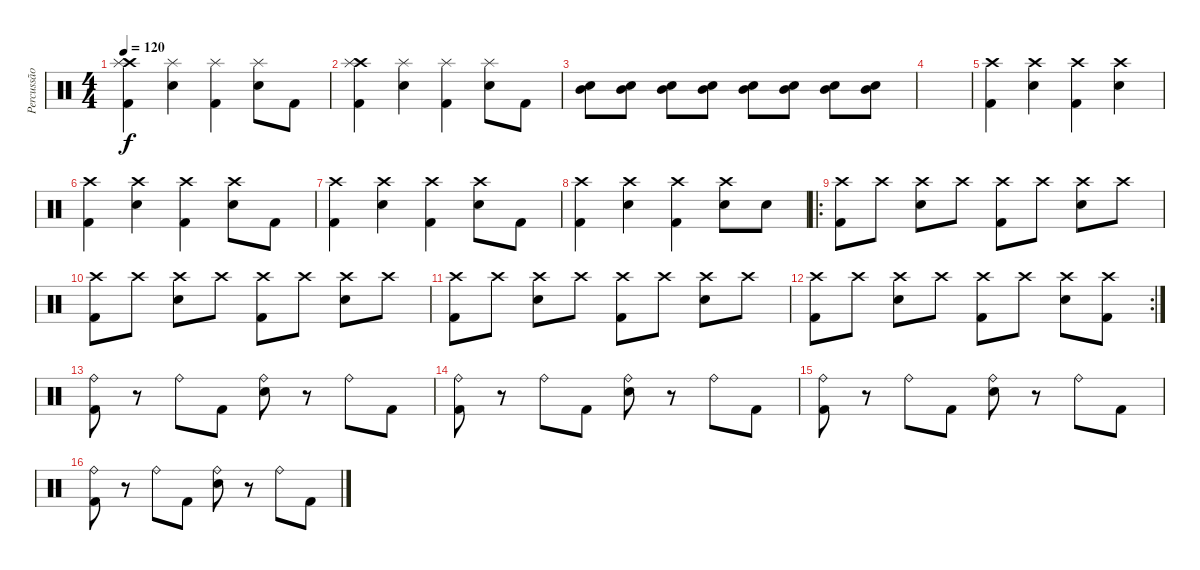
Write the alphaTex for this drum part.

\track ("Percussão" "Percussão") {instrument percussion}
\staff {score}
\articulation defaults
\ts (4 4)
\tempo 120
\clef neutral
\ks c
("Crash high (hit)" "Splash (hit)" "Kick (hit) 2").4{dy f} ("Splash (hit)" "Snare (hit) 2").4 ("Splash (hit)" "Kick (hit) 2").4 ("Splash (hit)" "Snare (hit) 2").8 "Kick (hit) 2".8 |
("Crash high (hit)" "Splash (hit)" "Kick (hit) 2").4 ("Splash (hit)" "Snare (hit) 2").4 ("Splash (hit)" "Kick (hit) 2").4 ("Splash (hit)" "Snare (hit) 2").8 "Kick (hit) 2".8 |
("Mid Tom (hit)" "Snare (hit) 2").8 ("Mid Tom (hit)" "Snare (hit) 2").8 ("Mid Tom (hit)" "Snare (hit) 2").8 ("Mid Tom (hit)" "Snare (hit) 2").8 ("Mid Tom (hit)" "Snare (hit) 2").8 ("Mid Tom (hit)" "Snare (hit) 2").8 ("Mid Tom (hit)" "Snare (hit) 2").8 ("Mid Tom (hit)" "Snare (hit) 2").8 |
|
("Crash high (hit)" "Kick (hit) 2").4 ("Crash high (hit)" "Snare (hit) 2").4 ("Crash high (hit)" "Kick (hit) 2").4 ("Crash high (hit)" "Snare (hit) 2").4 |
("Crash high (hit)" "Kick (hit) 2").4 ("Crash high (hit)" "Snare (hit) 2").4 ("Crash high (hit)" "Kick (hit) 2").4 ("Crash high (hit)" "Snare (hit) 2").8 "Kick (hit) 2".8 |
("Crash high (hit)" "Kick (hit) 2").4 ("Crash high (hit)" "Snare (hit) 2").4 ("Crash high (hit)" "Kick (hit) 2").4 ("Crash high (hit)" "Snare (hit) 2").8 "Kick (hit) 2".8 |
("Crash high (hit)" "Kick (hit) 2").4 ("Crash high (hit)" "Snare (hit) 2").4 ("Crash high (hit)" "Kick (hit) 2").4 ("Crash high (hit)" "Snare (hit) 2").8 "Snare (hit) 2".8 |
\ro
("Crash high (hit)" "Kick (hit) 2").8 "Crash high (hit)".8 ("Crash high (hit)" "Snare (hit) 2").8 "Crash high (hit)".8 ("Crash high (hit)" "Kick (hit) 2").8 "Crash high (hit)".8 ("Crash high (hit)" "Snare (hit) 2").8 "Crash high (hit)".8 |
("Crash high (hit)" "Kick (hit) 2").8 "Crash high (hit)".8 ("Crash high (hit)" "Snare (hit) 2").8 "Crash high (hit)".8 ("Crash high (hit)" "Kick (hit) 2").8 "Crash high (hit)".8 ("Crash high (hit)" "Snare (hit) 2").8 "Crash high (hit)".8 |
("Crash high (hit)" "Kick (hit) 2").8 "Crash high (hit)".8 ("Crash high (hit)" "Snare (hit) 2").8 "Crash high (hit)".8 ("Crash high (hit)" "Kick (hit) 2").8 "Crash high (hit)".8 ("Crash high (hit)" "Snare (hit) 2").8 "Crash high (hit)".8 |
\rc 2
("Crash high (hit)" "Kick (hit) 2").8 "Crash high (hit)".8 ("Crash high (hit)" "Snare (hit) 2").8 "Crash high (hit)".8 ("Crash high (hit)" "Kick (hit) 2").8 "Crash high (hit)".8 ("Crash high (hit)" "Snare (hit) 2").8 ("Crash high (hit)" "Kick (hit) 2").8 |
("Ride (bell)" "Kick (hit) 2").8 r.8 "Ride (bell)".8 "Kick (hit) 2".8 ("Ride (bell)" "Snare (hit) 2").8 r.8 "Ride (bell)".8 "Kick (hit) 2".8 |
("Ride (bell)" "Kick (hit) 2").8 r.8 "Ride (bell)".8 "Kick (hit) 2".8 ("Ride (bell)" "Snare (hit) 2").8 r.8 "Ride (bell)".8 "Kick (hit) 2".8 |
("Ride (bell)" "Kick (hit) 2").8 r.8 "Ride (bell)".8 "Kick (hit) 2".8 ("Ride (bell)" "Snare (hit) 2").8 r.8 "Ride (bell)".8 "Kick (hit) 2".8 |
("Ride (bell)" "Kick (hit) 2").8 r.8 "Ride (bell)".8 "Kick (hit) 2".8 ("Ride (bell)" "Snare (hit) 2").8 r.8 "Ride (bell)".8 "Kick (hit) 2".8
